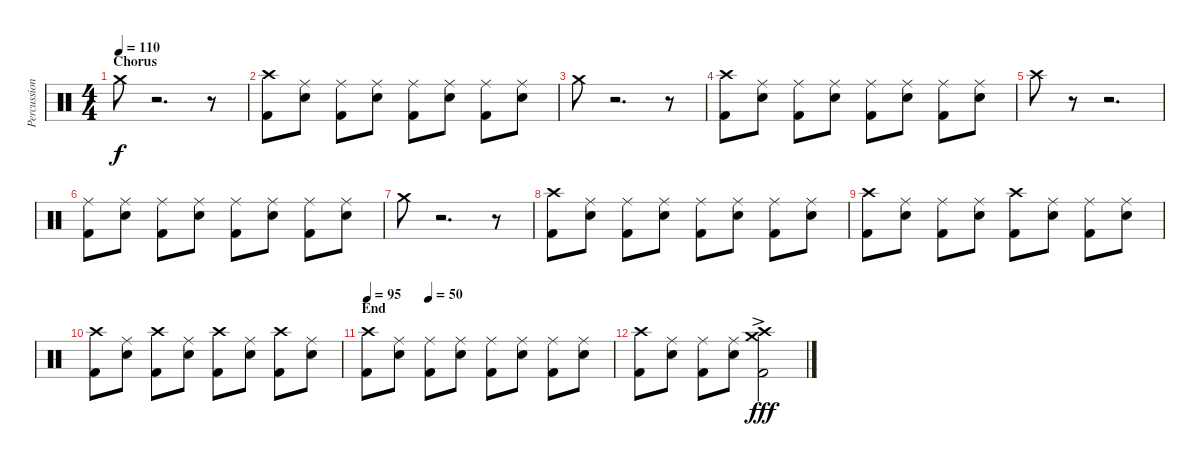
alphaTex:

\track ("Percussion" "Percussion") {instrument percussion}
\staff {score}
\articulation defaults
\ts (4 4)
\section ("" "Chorus")
\tempo 110
\clef neutral
\ks c "Crash medium (hit)".8{dy f}
r.2{d} r.8 |
("Crash high (hit)" "Kick (hit) 2").8 ("Ride (middle)" "Snare (hit) 2").8 ("Ride (middle)" "Kick (hit) 2").8 ("Ride (middle)" "Snare (hit) 2").8 ("Ride (middle)" "Kick (hit) 2").8 ("Ride (middle)" "Snare (hit) 2").8 ("Ride (middle)" "Kick (hit) 2").8 ("Ride (middle)" "Snare (hit) 2").8 |
"Crash medium (hit)".8 r.2{d} r.8 |
("Crash high (hit)" "Kick (hit) 2").8 ("Ride (middle)" "Snare (hit) 2").8 ("Ride (middle)" "Kick (hit) 2").8 ("Ride (middle)" "Snare (hit) 2").8 ("Ride (middle)" "Kick (hit) 2").8 ("Ride (middle)" "Snare (hit) 2").8 ("Ride (middle)" "Kick (hit) 2").8 ("Ride (middle)" "Snare (hit) 2").8 |
"Crash high (hit)".8 r.8 r.2{d} |
("Ride (middle)" "Kick (hit) 2").8 ("Ride (middle)" "Snare (hit) 2").8 ("Ride (middle)" "Kick (hit) 2").8 ("Ride (middle)" "Snare (hit) 2").8 ("Ride (middle)" "Kick (hit) 2").8 ("Ride (middle)" "Snare (hit) 2").8 ("Ride (middle)" "Kick (hit) 2").8 ("Ride (middle)" "Snare (hit) 2").8 |
"Crash medium (hit)".8 r.2{d} r.8 |
("Crash high (hit)" "Kick (hit) 2").8 ("Ride (middle)" "Snare (hit) 2").8 ("Ride (middle)" "Kick (hit) 2").8 ("Ride (middle)" "Snare (hit) 2").8 ("Ride (middle)" "Kick (hit) 2").8 ("Ride (middle)" "Snare (hit) 2").8 ("Ride (middle)" "Kick (hit) 2").8 ("Ride (middle)" "Snare (hit) 2").8 |
("Crash high (hit)" "Kick (hit) 2").8 ("Ride (middle)" "Snare (hit) 2").8 ("Ride (middle)" "Kick (hit) 2").8 ("Ride (middle)" "Snare (hit) 2").8 ("Crash high (hit)" "Kick (hit) 2").8 ("Ride (middle)" "Snare (hit) 2").8 ("Ride (middle)" "Kick (hit) 2").8 ("Ride (middle)" "Snare (hit) 2").8 |
("Crash high (hit)" "Kick (hit) 2").8 ("Ride (middle)" "Snare (hit) 2").8 ("Crash high (hit)" "Kick (hit) 2").8 ("Ride (middle)" "Snare (hit) 2").8 ("Crash high (hit)" "Kick (hit) 2").8 ("Ride (middle)" "Snare (hit) 2").8 ("Crash high (hit)" "Kick (hit) 2").8 ("Ride (middle)" "Snare (hit) 2").8 |
\section ("" "End")
\tempo 95
\tempo (50 0.25)
("Crash high (hit)" "Kick (hit) 2").8 ("Ride (middle)" "Snare (hit) 2").8 ("Ride (middle)" "Kick (hit) 2").8 ("Ride (middle)" "Snare (hit) 2").8 ("Ride (middle)" "Kick (hit) 2").8 ("Ride (middle)" "Snare (hit) 2").8 ("Ride (middle)" "Kick (hit) 2").8 ("Ride (middle)" "Snare (hit) 2").8 |
("Crash high (hit)" "Kick (hit) 2").8 ("Ride (middle)" "Snare (hit) 2").8 ("Ride (middle)" "Kick (hit) 2").8 ("Ride (middle)" "Snare (hit) 2").8 ("Crash high (hit)"{ac} "Kick (hit) 2"{ac} "Crash medium (hit)"{ac}).2{dy fff}
